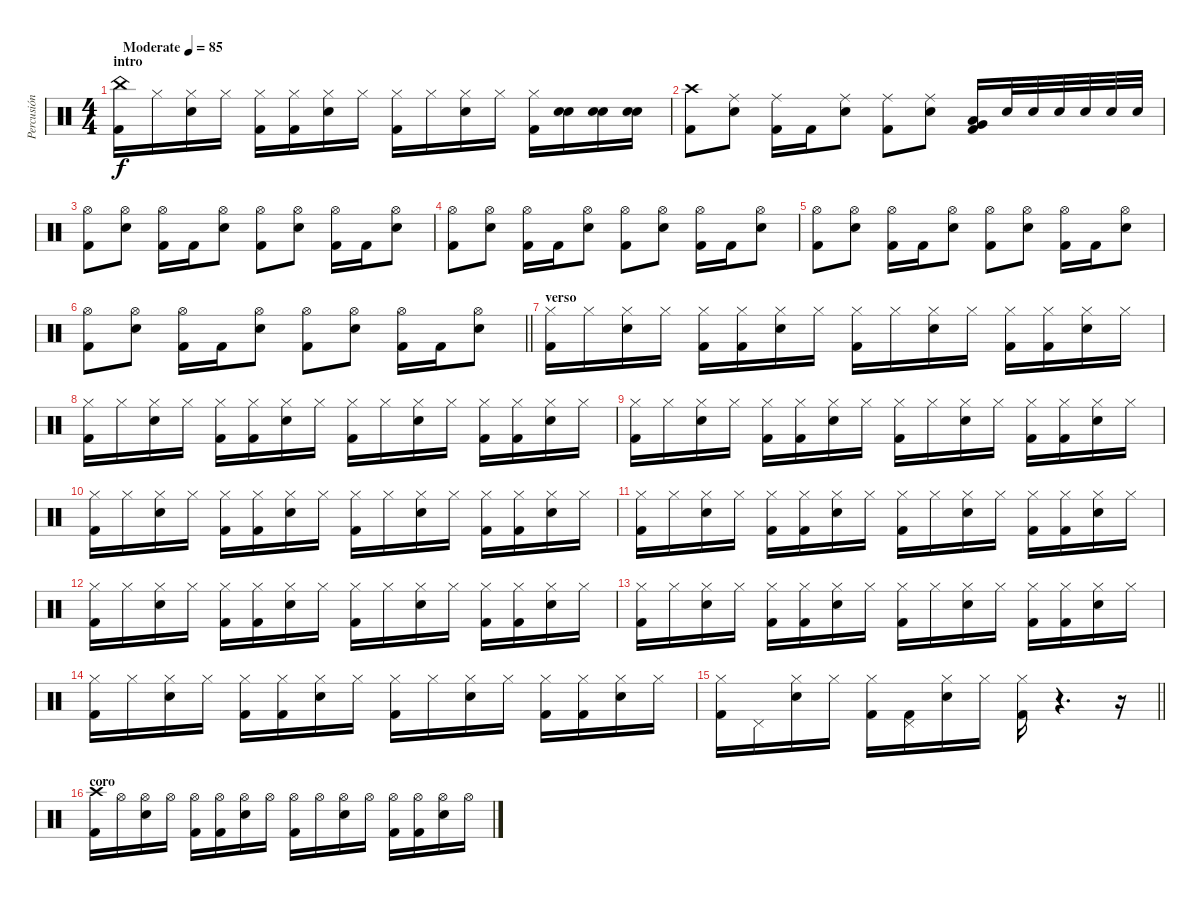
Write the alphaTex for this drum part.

\track ("Percusión" "Percusión") {instrument percussion}
\staff {score}
\articulation defaults
\ts (4 4)
\section ("" "intro")
\tempo (85 "Moderate")
\clef neutral
\ks c
("China (hit)" "Kick (hit) 2").16{dy f} "Hi-Hat (closed)".16 ("Hi-Hat (closed)" "Electric Snare (hit)").16 "Hi-Hat (closed)".16 ("Hi-Hat (closed)" "Kick (hit) 2").16 ("Hi-Hat (closed)" "Kick (hit) 2").16 ("Hi-Hat (closed)" "Electric Snare (hit)").16 "Hi-Hat (closed)".16 ("Hi-Hat (closed)" "Kick (hit) 2").16 "Hi-Hat (closed)".16 ("Hi-Hat (closed)" "Electric Snare (hit)").16 "Hi-Hat (closed)".16 ("Hi-Hat (closed)" "Kick (hit) 2").16 ("Electric Snare (hit)" "Snare (hit) 2").16 ("Electric Snare (hit)" "Snare (hit) 2").16 ("Electric Snare (hit)" "Snare (hit) 2").16 |
("Crash high (hit)" "Kick (hit) 2").8 ("Ride (middle)" "Electric Snare (hit)").8 ("Ride (middle)" "Kick (hit) 2").16 "Kick (hit) 2".16 ("Ride (middle)" "Electric Snare (hit)").8 ("Ride (middle)" "Kick (hit) 2").8 ("Ride (middle)" "Electric Snare (hit)").8 ("Low Floor Tom (hit)" "Very Low Tom (hit)" "Kick (hit) 2").16 "Electric Snare (hit)".32 "Electric Snare (hit)".32 "Electric Snare (hit)".32 "Electric Snare (hit)".32 "Electric Snare (hit)".32 "Electric Snare (hit)".32 |
("Hi-Hat (open)" "Kick (hit) 2").8 ("Hi-Hat (open)" "Electric Snare (hit)").8 ("Hi-Hat (open)" "Kick (hit) 2").16 "Kick (hit) 2".16 ("Hi-Hat (open)" "Electric Snare (hit)").8 ("Hi-Hat (open)" "Kick (hit) 2").8 ("Hi-Hat (open)" "Electric Snare (hit)").8 ("Hi-Hat (open)" "Kick (hit) 2").16 "Kick (hit) 2".16 ("Hi-Hat (open)" "Electric Snare (hit)").8 |
("Hi-Hat (open)" "Kick (hit) 2").8 ("Hi-Hat (open)" "Electric Snare (hit)").8 ("Hi-Hat (open)" "Kick (hit) 2").16 "Kick (hit) 2".16 ("Hi-Hat (open)" "Electric Snare (hit)").8 ("Hi-Hat (open)" "Kick (hit) 2").8 ("Hi-Hat (open)" "Electric Snare (hit)").8 ("Hi-Hat (open)" "Kick (hit) 2").16 "Kick (hit) 2".16 ("Hi-Hat (open)" "Electric Snare (hit)").8 |
("Hi-Hat (open)" "Kick (hit) 2").8 ("Hi-Hat (open)" "Electric Snare (hit)").8 ("Hi-Hat (open)" "Kick (hit) 2").16 "Kick (hit) 2".16 ("Hi-Hat (open)" "Electric Snare (hit)").8 ("Hi-Hat (open)" "Kick (hit) 2").8 ("Hi-Hat (open)" "Electric Snare (hit)").8 ("Hi-Hat (open)" "Kick (hit) 2").16 "Kick (hit) 2".16 ("Hi-Hat (open)" "Electric Snare (hit)").8 |
\barLineRight lightlight
("Hi-Hat (open)" "Kick (hit) 2").8 ("Hi-Hat (open)" "Electric Snare (hit)").8 ("Hi-Hat (open)" "Kick (hit) 2").16 "Kick (hit) 2".16 ("Hi-Hat (open)" "Electric Snare (hit)").8 ("Hi-Hat (open)" "Kick (hit) 2").8 ("Hi-Hat (open)" "Electric Snare (hit)").8 ("Hi-Hat (open)" "Kick (hit) 2").16 "Kick (hit) 2".16 ("Hi-Hat (open)" "Electric Snare (hit)").8 |
\section ("" "verso")
("Hi-Hat (closed)" "Kick (hit) 2").16 "Hi-Hat (closed)".16 ("Hi-Hat (closed)" "Electric Snare (hit)").16 "Hi-Hat (closed)".16 ("Hi-Hat (closed)" "Kick (hit) 2").16 ("Hi-Hat (closed)" "Kick (hit) 2").16 ("Hi-Hat (closed)" "Electric Snare (hit)").16 "Hi-Hat (closed)".16 ("Hi-Hat (closed)" "Kick (hit) 2").16 "Hi-Hat (closed)".16 ("Hi-Hat (closed)" "Electric Snare (hit)").16 "Hi-Hat (closed)".16 ("Hi-Hat (closed)" "Kick (hit) 2").16 ("Hi-Hat (closed)" "Kick (hit) 2").16 ("Hi-Hat (closed)" "Electric Snare (hit)").16 "Hi-Hat (closed)".16 |
("Hi-Hat (closed)" "Kick (hit) 2").16 "Hi-Hat (closed)".16 ("Hi-Hat (closed)" "Electric Snare (hit)").16 "Hi-Hat (closed)".16 ("Hi-Hat (closed)" "Kick (hit) 2").16 ("Hi-Hat (closed)" "Kick (hit) 2").16 ("Hi-Hat (closed)" "Electric Snare (hit)").16 "Hi-Hat (closed)".16 ("Hi-Hat (closed)" "Kick (hit) 2").16 "Hi-Hat (closed)".16 ("Hi-Hat (closed)" "Electric Snare (hit)").16 "Hi-Hat (closed)".16 ("Hi-Hat (closed)" "Kick (hit) 2").16 ("Hi-Hat (closed)" "Kick (hit) 2").16 ("Hi-Hat (closed)" "Electric Snare (hit)").16 "Hi-Hat (closed)".16 |
("Hi-Hat (closed)" "Kick (hit) 2").16 "Hi-Hat (closed)".16 ("Hi-Hat (closed)" "Electric Snare (hit)").16 "Hi-Hat (closed)".16 ("Hi-Hat (closed)" "Kick (hit) 2").16 ("Hi-Hat (closed)" "Kick (hit) 2").16 ("Hi-Hat (closed)" "Electric Snare (hit)").16 "Hi-Hat (closed)".16 ("Hi-Hat (closed)" "Kick (hit) 2").16 "Hi-Hat (closed)".16 ("Hi-Hat (closed)" "Electric Snare (hit)").16 "Hi-Hat (closed)".16 ("Hi-Hat (closed)" "Kick (hit) 2").16 ("Hi-Hat (closed)" "Kick (hit) 2").16 ("Hi-Hat (closed)" "Electric Snare (hit)").16 "Hi-Hat (closed)".16 |
("Hi-Hat (closed)" "Kick (hit) 2").16 "Hi-Hat (closed)".16 ("Hi-Hat (closed)" "Electric Snare (hit)").16 "Hi-Hat (closed)".16 ("Hi-Hat (closed)" "Kick (hit) 2").16 ("Hi-Hat (closed)" "Kick (hit) 2").16 ("Hi-Hat (closed)" "Electric Snare (hit)").16 "Hi-Hat (closed)".16 ("Hi-Hat (closed)" "Kick (hit) 2").16 "Hi-Hat (closed)".16 ("Hi-Hat (closed)" "Electric Snare (hit)").16 "Hi-Hat (closed)".16 ("Hi-Hat (closed)" "Kick (hit) 2").16 ("Hi-Hat (closed)" "Kick (hit) 2").16 ("Hi-Hat (closed)" "Electric Snare (hit)").16 "Hi-Hat (closed)".16 |
("Hi-Hat (closed)" "Kick (hit) 2").16 "Hi-Hat (closed)".16 ("Hi-Hat (closed)" "Electric Snare (hit)").16 "Hi-Hat (closed)".16 ("Hi-Hat (closed)" "Kick (hit) 2").16 ("Hi-Hat (closed)" "Kick (hit) 2").16 ("Hi-Hat (closed)" "Electric Snare (hit)").16 "Hi-Hat (closed)".16 ("Hi-Hat (closed)" "Kick (hit) 2").16 "Hi-Hat (closed)".16 ("Hi-Hat (closed)" "Electric Snare (hit)").16 "Hi-Hat (closed)".16 ("Hi-Hat (closed)" "Kick (hit) 2").16 ("Hi-Hat (closed)" "Kick (hit) 2").16 ("Hi-Hat (closed)" "Electric Snare (hit)").16 "Hi-Hat (closed)".16 |
("Hi-Hat (closed)" "Kick (hit) 2").16 "Hi-Hat (closed)".16 ("Hi-Hat (closed)" "Electric Snare (hit)").16 "Hi-Hat (closed)".16 ("Hi-Hat (closed)" "Kick (hit) 2").16 ("Hi-Hat (closed)" "Kick (hit) 2").16 ("Hi-Hat (closed)" "Electric Snare (hit)").16 "Hi-Hat (closed)".16 ("Hi-Hat (closed)" "Kick (hit) 2").16 "Hi-Hat (closed)".16 ("Hi-Hat (closed)" "Electric Snare (hit)").16 "Hi-Hat (closed)".16 ("Hi-Hat (closed)" "Kick (hit) 2").16 ("Hi-Hat (closed)" "Kick (hit) 2").16 ("Hi-Hat (closed)" "Electric Snare (hit)").16 "Hi-Hat (closed)".16 |
("Hi-Hat (closed)" "Kick (hit) 2").16 "Hi-Hat (closed)".16 ("Hi-Hat (closed)" "Electric Snare (hit)").16 "Hi-Hat (closed)".16 ("Hi-Hat (closed)" "Kick (hit) 2").16 ("Hi-Hat (closed)" "Kick (hit) 2").16 ("Hi-Hat (closed)" "Electric Snare (hit)").16 "Hi-Hat (closed)".16 ("Hi-Hat (closed)" "Kick (hit) 2").16 "Hi-Hat (closed)".16 ("Hi-Hat (closed)" "Electric Snare (hit)").16 "Hi-Hat (closed)".16 ("Hi-Hat (closed)" "Kick (hit) 2").16 ("Hi-Hat (closed)" "Kick (hit) 2").16 ("Hi-Hat (closed)" "Electric Snare (hit)").16 "Hi-Hat (closed)".16 |
("Hi-Hat (closed)" "Kick (hit) 2").16 "Hi-Hat (closed)".16 ("Hi-Hat (closed)" "Electric Snare (hit)").16 "Hi-Hat (closed)".16 ("Hi-Hat (closed)" "Kick (hit) 2").16 ("Hi-Hat (closed)" "Kick (hit) 2").16 ("Hi-Hat (closed)" "Electric Snare (hit)").16 "Hi-Hat (closed)".16 ("Hi-Hat (closed)" "Kick (hit) 2").16 "Hi-Hat (closed)".16 ("Hi-Hat (closed)" "Electric Snare (hit)").16 "Hi-Hat (closed)".16 ("Hi-Hat (closed)" "Kick (hit) 2").16 ("Hi-Hat (closed)" "Kick (hit) 2").16 ("Hi-Hat (closed)" "Electric Snare (hit)").16 "Hi-Hat (closed)".16 |
\barLineRight lightlight
("Hi-Hat (closed)" "Kick (hit) 2").16 "Pedal Hi-Hat (hit)".16 ("Hi-Hat (closed)" "Electric Snare (hit)").16 "Hi-Hat (closed)".16 ("Hi-Hat (closed)" "Kick (hit) 2").16 ("Pedal Hi-Hat (hit)" "Kick (hit) 2").16 ("Hi-Hat (closed)" "Electric Snare (hit)").16 "Hi-Hat (closed)".16 ("Hi-Hat (closed)" "Kick (hit) 2").16 r.4{d} r.16 |
\section ("" "coro")
("Crash high (hit)" "Kick (hit) 2").16 "Hi-Hat (open)".16 ("Hi-Hat (open)" "Electric Snare (hit)").16 "Hi-Hat (open)".16 ("Hi-Hat (open)" "Kick (hit) 2").16 ("Hi-Hat (open)" "Kick (hit) 2").16 ("Hi-Hat (open)" "Electric Snare (hit)").16 "Hi-Hat (open)".16 ("Hi-Hat (open)" "Kick (hit) 2").16 "Hi-Hat (open)".16 ("Hi-Hat (open)" "Electric Snare (hit)").16 "Hi-Hat (open)".16 ("Hi-Hat (open)" "Kick (hit) 2").16 ("Hi-Hat (open)" "Kick (hit) 2").16 ("Hi-Hat (open)" "Electric Snare (hit)").16 "Hi-Hat (open)".16
